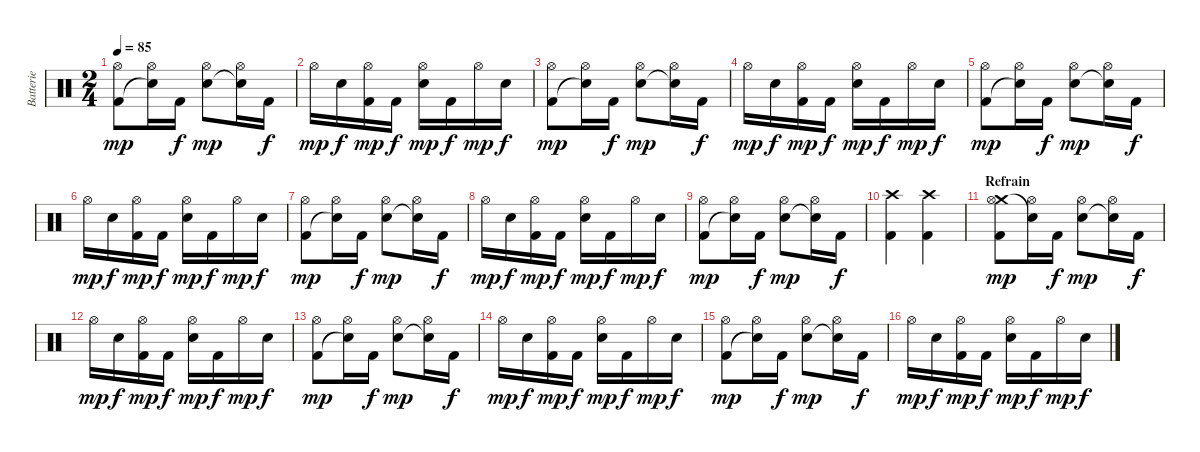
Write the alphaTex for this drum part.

\track ("Batterie" "Batterie") {instrument percussion}
\staff {score}
\articulation defaults
\ts (2 4)
\tempo 85
\clef neutral
\ks c
("Hi-Hat (open)" "Kick (hit) 2").8{dy mp} ("Hi-Hat (open)" "Snare (hit)"{t}).16 "Kick (hit) 2".16{dy f} ("Electric Snare (hit)" "Hi-Hat (open)").8{dy mp} ("Snare (hit)"{t} "Hi-Hat (open)").16 "Kick (hit) 2".16{dy f} |
"Hi-Hat (open)".16{dy mp} "Electric Snare (hit)".16{dy f} ("Hi-Hat (open)" "Kick (hit) 2").16{dy mp} "Kick (hit) 2".16{dy f} ("Electric Snare (hit)" "Hi-Hat (open)").16{dy mp} "Kick (hit) 2".16{dy f} "Hi-Hat (open)".16{dy mp} "Electric Snare (hit)".16{dy f} |
("Hi-Hat (open)" "Kick (hit) 2").8{dy mp} ("Hi-Hat (open)" "Snare (hit)"{t}).16 "Kick (hit) 2".16{dy f} ("Electric Snare (hit)" "Hi-Hat (open)").8{dy mp} ("Snare (hit)"{t} "Hi-Hat (open)").16 "Kick (hit) 2".16{dy f} |
"Hi-Hat (open)".16{dy mp} "Electric Snare (hit)".16{dy f} ("Hi-Hat (open)" "Kick (hit) 2").16{dy mp} "Kick (hit) 2".16{dy f} ("Electric Snare (hit)" "Hi-Hat (open)").16{dy mp} "Kick (hit) 2".16{dy f} "Hi-Hat (open)".16{dy mp} "Electric Snare (hit)".16{dy f} |
("Hi-Hat (open)" "Kick (hit) 2").8{dy mp} ("Hi-Hat (open)" "Snare (hit)"{t}).16 "Kick (hit) 2".16{dy f} ("Electric Snare (hit)" "Hi-Hat (open)").8{dy mp} ("Snare (hit)"{t} "Hi-Hat (open)").16 "Kick (hit) 2".16{dy f} |
"Hi-Hat (open)".16{dy mp} "Electric Snare (hit)".16{dy f} ("Hi-Hat (open)" "Kick (hit) 2").16{dy mp} "Kick (hit) 2".16{dy f} ("Electric Snare (hit)" "Hi-Hat (open)").16{dy mp} "Kick (hit) 2".16{dy f} "Hi-Hat (open)".16{dy mp} "Electric Snare (hit)".16{dy f} |
("Hi-Hat (open)" "Kick (hit) 2").8{dy mp} ("Hi-Hat (open)" "Snare (hit)"{t}).16 "Kick (hit) 2".16{dy f} ("Electric Snare (hit)" "Hi-Hat (open)").8{dy mp} ("Snare (hit)"{t} "Hi-Hat (open)").16 "Kick (hit) 2".16{dy f} |
"Hi-Hat (open)".16{dy mp} "Electric Snare (hit)".16{dy f} ("Hi-Hat (open)" "Kick (hit) 2").16{dy mp} "Kick (hit) 2".16{dy f} ("Electric Snare (hit)" "Hi-Hat (open)").16{dy mp} "Kick (hit) 2".16{dy f} "Hi-Hat (open)".16{dy mp} "Electric Snare (hit)".16{dy f} |
("Hi-Hat (open)" "Kick (hit) 2").8{dy mp} ("Hi-Hat (open)" "Snare (hit)"{t}).16 "Kick (hit) 2".16{dy f} ("Electric Snare (hit)" "Hi-Hat (open)").8{dy mp} ("Snare (hit)"{t} "Hi-Hat (open)").16 "Kick (hit) 2".16{dy f} |
("Crash high (hit)" "Kick (hit) 2").4 ("Crash high (hit)" "Kick (hit) 2").4 |
\section ("" "Refrain")
("Crash medium (hit)" "Hi-Hat (open)" "Kick (hit) 2").8{dy mp} ("Hi-Hat (open)" "Snare (hit)"{t}).16 "Kick (hit) 2".16{dy f} ("Electric Snare (hit)" "Hi-Hat (open)").8{dy mp} ("Snare (hit)"{t} "Hi-Hat (open)").16 "Kick (hit) 2".16{dy f} |
"Hi-Hat (open)".16{dy mp} "Electric Snare (hit)".16{dy f} ("Hi-Hat (open)" "Kick (hit) 2").16{dy mp} "Kick (hit) 2".16{dy f} ("Electric Snare (hit)" "Hi-Hat (open)").16{dy mp} "Kick (hit) 2".16{dy f} "Hi-Hat (open)".16{dy mp} "Electric Snare (hit)".16{dy f} |
("Hi-Hat (open)" "Kick (hit) 2").8{dy mp} ("Hi-Hat (open)" "Snare (hit)"{t}).16 "Kick (hit) 2".16{dy f} ("Electric Snare (hit)" "Hi-Hat (open)").8{dy mp} ("Snare (hit)"{t} "Hi-Hat (open)").16 "Kick (hit) 2".16{dy f} |
"Hi-Hat (open)".16{dy mp} "Electric Snare (hit)".16{dy f} ("Hi-Hat (open)" "Kick (hit) 2").16{dy mp} "Kick (hit) 2".16{dy f} ("Electric Snare (hit)" "Hi-Hat (open)").16{dy mp} "Kick (hit) 2".16{dy f} "Hi-Hat (open)".16{dy mp} "Electric Snare (hit)".16{dy f} |
("Hi-Hat (open)" "Kick (hit) 2").8{dy mp} ("Hi-Hat (open)" "Snare (hit)"{t}).16 "Kick (hit) 2".16{dy f} ("Electric Snare (hit)" "Hi-Hat (open)").8{dy mp} ("Snare (hit)"{t} "Hi-Hat (open)").16 "Kick (hit) 2".16{dy f} |
"Hi-Hat (open)".16{dy mp} "Electric Snare (hit)".16{dy f} ("Hi-Hat (open)" "Kick (hit) 2").16{dy mp} "Kick (hit) 2".16{dy f} ("Electric Snare (hit)" "Hi-Hat (open)").16{dy mp} "Kick (hit) 2".16{dy f} "Hi-Hat (open)".16{dy mp} "Electric Snare (hit)".16{dy f}
